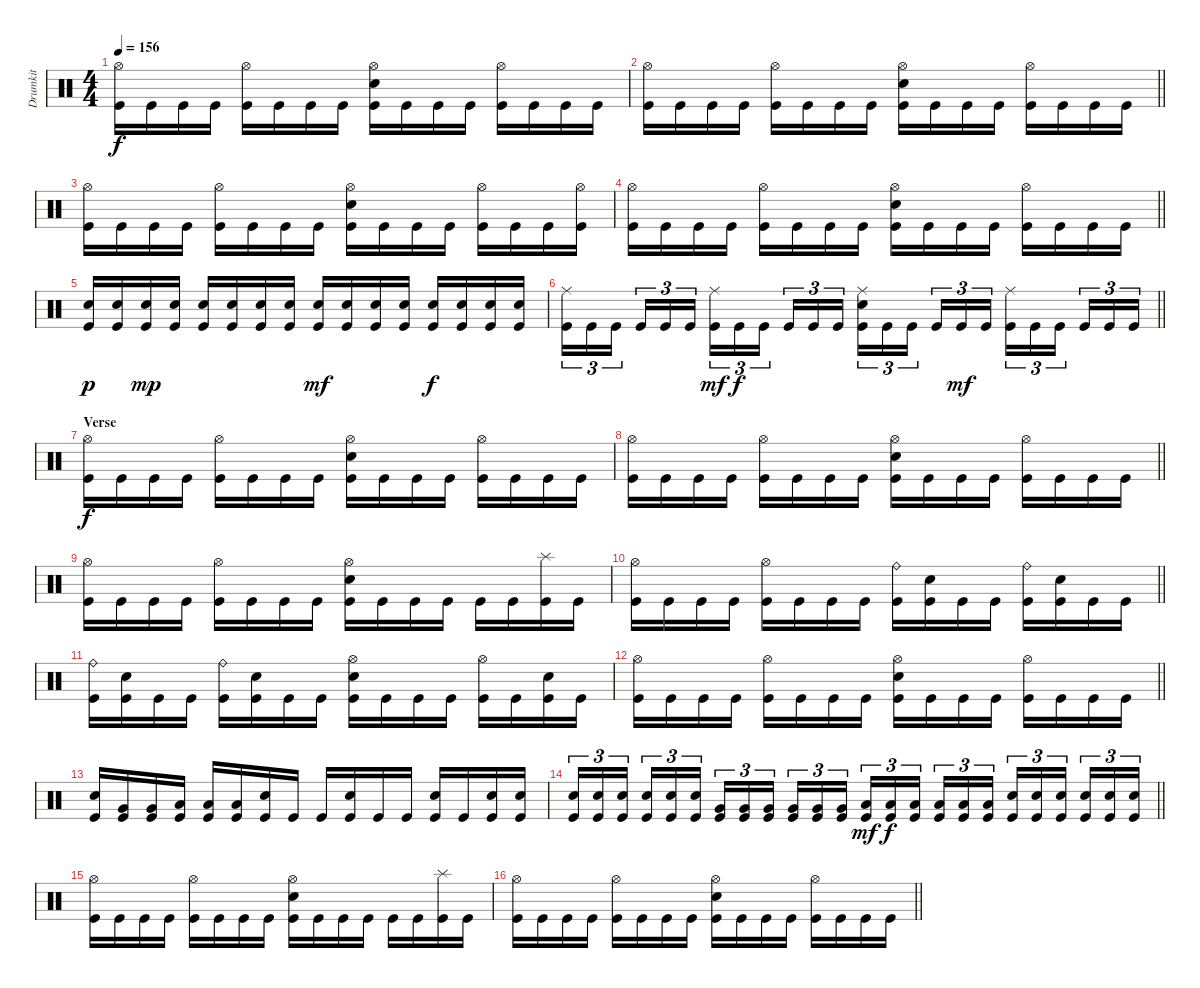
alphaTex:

\track ("Drumkit" "Drumkit") {instrument percussion}
\staff {score}
\articulation defaults
\ts (4 4)
\tempo 156
\clef neutral
\ks c
("Hi-Hat (open)" "Kick (hit)").16{dy f} "Kick (hit)".16 "Kick (hit)".16 "Kick (hit)".16 ("Hi-Hat (open)" "Kick (hit)").16 "Kick (hit)".16 "Kick (hit)".16 "Kick (hit)".16 ("Hi-Hat (open)" "Snare (hit) 2" "Kick (hit)").16 "Kick (hit)".16 "Kick (hit)".16 "Kick (hit)".16 ("Hi-Hat (open)" "Kick (hit)").16 "Kick (hit)".16 "Kick (hit)".16 "Kick (hit)".16 |
\barLineRight lightlight
("Hi-Hat (open)" "Kick (hit)").16 "Kick (hit)".16 "Kick (hit)".16 "Kick (hit)".16 ("Hi-Hat (open)" "Kick (hit)").16 "Kick (hit)".16 "Kick (hit)".16 "Kick (hit)".16 ("Hi-Hat (open)" "Snare (hit) 2" "Kick (hit)").16 "Kick (hit)".16 "Kick (hit)".16 "Kick (hit)".16 ("Hi-Hat (open)" "Kick (hit)").16 "Kick (hit)".16 "Kick (hit)".16 "Kick (hit)".16 |
("Hi-Hat (open)" "Kick (hit)").16 "Kick (hit)".16 "Kick (hit)".16 "Kick (hit)".16 ("Hi-Hat (open)" "Kick (hit)").16 "Kick (hit)".16 "Kick (hit)".16 "Kick (hit)".16 ("Hi-Hat (open)" "Snare (hit) 2" "Kick (hit)").16 "Kick (hit)".16 "Kick (hit)".16 "Kick (hit)".16 ("Hi-Hat (open)" "Kick (hit)").16 "Kick (hit)".16 "Kick (hit)".16 ("Hi-Hat (open)" "Kick (hit)").16 |
\barLineRight lightlight
("Hi-Hat (open)" "Kick (hit)").16 "Kick (hit)".16 "Kick (hit)".16 "Kick (hit)".16 ("Hi-Hat (open)" "Kick (hit)").16 "Kick (hit)".16 "Kick (hit)".16 "Kick (hit)".16 ("Hi-Hat (open)" "Snare (hit) 2" "Kick (hit)").16 "Kick (hit)".16 "Kick (hit)".16 "Kick (hit)".16 ("Hi-Hat (open)" "Kick (hit)").16 "Kick (hit)".16 "Kick (hit)".16 "Kick (hit)".16 |
("Snare (hit) 2" "Kick (hit)").16{dy p} ("Snare (hit) 2" "Kick (hit)").16 ("Snare (hit) 2" "Kick (hit)").16{dy mp} ("Snare (hit) 2" "Kick (hit)").16 ("Snare (hit) 2" "Kick (hit)").16 ("Snare (hit) 2" "Kick (hit)").16 ("Snare (hit) 2" "Kick (hit)").16 ("Snare (hit) 2" "Kick (hit)").16 ("Snare (hit) 2" "Kick (hit)").16{dy mf} ("Snare (hit) 2" "Kick (hit)").16 ("Snare (hit) 2" "Kick (hit)").16 ("Snare (hit) 2" "Kick (hit)").16 ("Snare (hit) 2" "Kick (hit)").16{dy f} ("Snare (hit) 2" "Kick (hit)").16 ("Snare (hit) 2" "Kick (hit)").16 ("Snare (hit) 2" "Kick (hit)").16 |
\barLineRight lightlight
("Ride (middle)" "Kick (hit)").16{tu (3 2)} "Kick (hit)".16{tu (3 2)} "Kick (hit)".16{tu (3 2)} "Kick (hit)".16{tu (3 2)} "Kick (hit)".16{tu (3 2)} "Kick (hit)".16{tu (3 2)} ("Ride (middle)" "Kick (hit)").16{tu (3 2) dy mf} "Kick (hit)".16{tu (3 2) dy f} "Kick (hit)".16{tu (3 2)} "Kick (hit)".16{tu (3 2)} "Kick (hit)".16{tu (3 2)} "Kick (hit)".16{tu (3 2)} ("Ride (middle)" "Snare (hit) 2" "Kick (hit)").16{tu (3 2)} "Kick (hit)".16{tu (3 2)} "Kick (hit)".16{tu (3 2)} "Kick (hit)".16{tu (3 2)} "Kick (hit)".16{tu (3 2) dy mf} "Kick (hit)".16{tu (3 2)} ("Ride (middle)" "Kick (hit)").16{tu (3 2)} "Kick (hit)".16{tu (3 2)} "Kick (hit)".16{tu (3 2)} "Kick (hit)".16{tu (3 2)} "Kick (hit)".16{tu (3 2)} "Kick (hit)".16{tu (3 2)} |
\section ("" "Verse")
("Hi-Hat (open)" "Kick (hit)").16{dy f} "Kick (hit)".16 "Kick (hit)".16 "Kick (hit)".16 ("Hi-Hat (open)" "Kick (hit)").16 "Kick (hit)".16 "Kick (hit)".16 "Kick (hit)".16 ("Hi-Hat (open)" "Snare (hit) 2" "Kick (hit)").16 "Kick (hit)".16 "Kick (hit)".16 "Kick (hit)".16 ("Hi-Hat (open)" "Kick (hit)").16 "Kick (hit)".16 "Kick (hit)".16 "Kick (hit)".16 |
\barLineRight lightlight
("Hi-Hat (open)" "Kick (hit)").16 "Kick (hit)".16 "Kick (hit)".16 "Kick (hit)".16 ("Hi-Hat (open)" "Kick (hit)").16 "Kick (hit)".16 "Kick (hit)".16 "Kick (hit)".16 ("Hi-Hat (open)" "Snare (hit) 2" "Kick (hit)").16 "Kick (hit)".16 "Kick (hit)".16 "Kick (hit)".16 ("Hi-Hat (open)" "Kick (hit)").16 "Kick (hit)".16 "Kick (hit)".16 "Kick (hit)".16 |
("Hi-Hat (open)" "Kick (hit)").16 "Kick (hit)".16 "Kick (hit)".16 "Kick (hit)".16 ("Hi-Hat (open)" "Kick (hit)").16 "Kick (hit)".16 "Kick (hit)".16 "Kick (hit)".16 ("Hi-Hat (open)" "Snare (hit) 2" "Kick (hit)").16 "Kick (hit)".16 "Kick (hit)".16 "Kick (hit)".16 "Kick (hit)".16 "Kick (hit)".16 ("Splash (hit)" "Kick (hit)").16 "Kick (hit)".16 |
\barLineRight lightlight
("Hi-Hat (open)" "Kick (hit)").16 "Kick (hit)".16 "Kick (hit)".16 "Kick (hit)".16 ("Hi-Hat (open)" "Kick (hit)").16 "Kick (hit)".16 "Kick (hit)".16 "Kick (hit)".16 ("Ride (bell)" "Kick (hit)").16 ("Snare (hit) 2" "Kick (hit)").16 "Kick (hit)".16 "Kick (hit)".16 ("Ride (bell)" "Kick (hit)").16 ("Snare (hit) 2" "Kick (hit)").16 "Kick (hit)".16 "Kick (hit)".16 |
("Ride (bell)" "Kick (hit)").16 ("Snare (hit) 2" "Kick (hit)").16 "Kick (hit)".16 "Kick (hit)".16 ("Ride (bell)" "Kick (hit)").16 ("Snare (hit) 2" "Kick (hit)").16 "Kick (hit)".16 "Kick (hit)".16 ("Hi-Hat (open)" "Snare (hit) 2" "Kick (hit)").16 "Kick (hit)".16 "Kick (hit)".16 "Kick (hit)".16 ("Hi-Hat (open)" "Kick (hit)").16 "Kick (hit)".16 ("Snare (hit) 2" "Kick (hit)").16 "Kick (hit)".16 |
\barLineRight lightlight
("Hi-Hat (open)" "Kick (hit)").16 "Kick (hit)".16 "Kick (hit)".16 "Kick (hit)".16 ("Hi-Hat (open)" "Kick (hit)").16 "Kick (hit)".16 "Kick (hit)".16 "Kick (hit)".16 ("Hi-Hat (open)" "Snare (hit) 2" "Kick (hit)").16 "Kick (hit)".16 "Kick (hit)".16 "Kick (hit)".16 ("Hi-Hat (open)" "Kick (hit)").16 "Kick (hit)".16 "Kick (hit)".16 "Kick (hit)".16 |
("Snare (hit) 2" "Kick (hit)").16 ("Very Low Tom (hit)" "Kick (hit)").16 ("Very Low Tom (hit)" "Kick (hit)").16 ("Low Floor Tom (hit)" "Kick (hit)").16 ("Low Floor Tom (hit)" "Kick (hit)").16 ("Low Floor Tom (hit)" "Kick (hit)").16 ("Snare (hit) 2" "Kick (hit)").16 "Kick (hit)".16 "Kick (hit)".16 ("Snare (hit) 2" "Kick (hit)").16 "Kick (hit)".16 "Kick (hit)".16 ("Snare (hit) 2" "Kick (hit)").16 "Kick (hit)".16 ("Snare (hit) 2" "Kick (hit)").16 ("Snare (hit) 2" "Kick (hit)").16 |
\barLineRight lightlight
("Snare (hit) 2" "Kick (hit)").16{tu (3 2)} ("Snare (hit) 2" "Kick (hit)").16{tu (3 2)} ("Snare (hit) 2" "Kick (hit)").16{tu (3 2)} ("Snare (hit) 2" "Kick (hit)").16{tu (3 2)} ("Snare (hit) 2" "Kick (hit)").16{tu (3 2)} ("Snare (hit) 2" "Kick (hit)").16{tu (3 2)} ("Very Low Tom (hit)" "Kick (hit)").16{tu (3 2)} ("Very Low Tom (hit)" "Kick (hit)").16{tu (3 2)} ("Very Low Tom (hit)" "Kick (hit)").16{tu (3 2)} ("Very Low Tom (hit)" "Kick (hit)").16{tu (3 2)} ("Very Low Tom (hit)" "Kick (hit)").16{tu (3 2)} ("Very Low Tom (hit)" "Kick (hit)").16{tu (3 2)} ("Low Floor Tom (hit)" "Kick (hit)").16{tu (3 2) dy mf} ("Low Floor Tom (hit)" "Kick (hit)").16{tu (3 2) dy f} ("Low Floor Tom (hit)" "Kick (hit)").16{tu (3 2)} ("Low Floor Tom (hit)" "Kick (hit)").16{tu (3 2)} ("Low Floor Tom (hit)" "Kick (hit)").16{tu (3 2)} ("Low Floor Tom (hit)" "Kick (hit)").16{tu (3 2)} ("Snare (hit) 2" "Kick (hit)").16{tu (3 2)} ("Snare (hit) 2" "Kick (hit)").16{tu (3 2)} ("Snare (hit) 2" "Kick (hit)").16{tu (3 2)} ("Snare (hit) 2" "Kick (hit)").16{tu (3 2)} ("Snare (hit) 2" "Kick (hit)").16{tu (3 2)} ("Snare (hit) 2" "Kick (hit)").16{tu (3 2)} |
\section ("" "")
("Hi-Hat (open)" "Kick (hit)").16 "Kick (hit)".16 "Kick (hit)".16 "Kick (hit)".16 ("Hi-Hat (open)" "Kick (hit)").16 "Kick (hit)".16 "Kick (hit)".16 "Kick (hit)".16 ("Hi-Hat (open)" "Snare (hit) 2" "Kick (hit)").16 "Kick (hit)".16 "Kick (hit)".16 "Kick (hit)".16 "Kick (hit)".16 "Kick (hit)".16 ("Splash (hit)" "Kick (hit)").16 "Kick (hit)".16 |
\barLineRight lightlight
("Hi-Hat (open)" "Kick (hit)").16 "Kick (hit)".16 "Kick (hit)".16 "Kick (hit)".16 ("Hi-Hat (open)" "Kick (hit)").16 "Kick (hit)".16 "Kick (hit)".16 "Kick (hit)".16 ("Hi-Hat (open)" "Snare (hit) 2" "Kick (hit)").16 "Kick (hit)".16 "Kick (hit)".16 "Kick (hit)".16 ("Hi-Hat (open)" "Kick (hit)").16 "Kick (hit)".16 "Kick (hit)".16 "Kick (hit)".16
